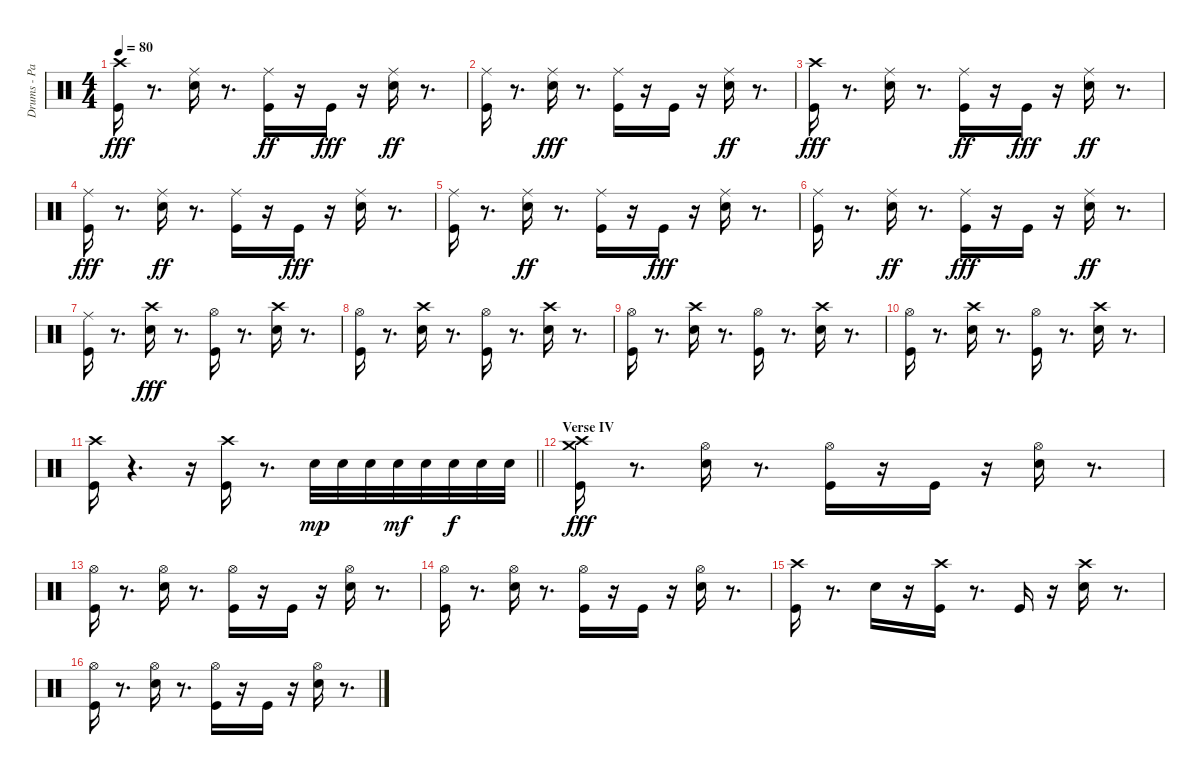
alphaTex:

\track ("Drums - Paice" "Drums - Pa") {instrument percussion}
\staff {score}
\articulation defaults
\ts (4 4)
\tempo 80
\clef neutral
\ks c
("Crash high (hit)" "Kick (hit)").16{dy fff} r.8{d} ("Ride (middle)" "Snare (hit) 2").16 r.8{d} ("Kick (hit)" "Ride (middle)").16{dy ff} r.16 "Kick (hit)".16{dy fff} r.16 ("Snare (hit) 2" "Ride (middle)").16{dy ff} r.8{d} |
("Kick (hit)" "Ride (middle)").16 r.8{d} ("Ride (middle)" "Snare (hit) 2").16{dy fff} r.8{d} ("Ride (middle)" "Kick (hit)").16 r.16 "Kick (hit)".16 r.16 ("Snare (hit) 2" "Ride (middle)").16{dy ff} r.8{d} |
("Crash high (hit)" "Kick (hit)").16{dy fff} r.8{d} ("Ride (middle)" "Snare (hit) 2").16 r.8{d} ("Kick (hit)" "Ride (middle)").16{dy ff} r.16 "Kick (hit)".16{dy fff} r.16 ("Snare (hit) 2" "Ride (middle)").16{dy ff} r.8{d} |
("Ride (middle)" "Kick (hit)").16{dy fff} r.8{d} ("Snare (hit) 2" "Ride (middle)").16{dy ff} r.8{d} ("Kick (hit)" "Ride (middle)").16 r.16 "Kick (hit)".16{dy fff} r.16 ("Ride (middle)" "Snare (hit) 2").16 r.8{d} |
("Ride (middle)" "Kick (hit)").16 r.8{d} ("Snare (hit) 2" "Ride (middle)").16{dy ff} r.8{d} ("Kick (hit)" "Ride (middle)").16 r.16 "Kick (hit)".16{dy fff} r.16 ("Ride (middle)" "Snare (hit) 2").16 r.8{d} |
("Ride (middle)" "Kick (hit)").16 r.8{d} ("Snare (hit) 2" "Ride (middle)").16{dy ff} r.8{d} ("Ride (middle)" "Kick (hit)").16{dy fff} r.16 "Kick (hit)".16 r.16 ("Snare (hit) 2" "Ride (middle)").16{dy ff} r.8{d} |
("Kick (hit)" "Ride (middle)").16 r.8{d} ("Crash high (hit)" "Snare (hit) 2").16{dy fff} r.8{d} ("Hi-Hat (open)" "Kick (hit)").16 r.8{d} ("Crash high (hit)" "Snare (hit) 2").16 r.8{d} |
("Hi-Hat (open)" "Kick (hit)").16 r.8{d} ("Crash high (hit)" "Snare (hit) 2").16 r.8{d} ("Kick (hit)" "Hi-Hat (open)").16 r.8{d} ("Crash high (hit)" "Snare (hit) 2").16 r.8{d} |
("Kick (hit)" "Hi-Hat (open)").16 r.8{d} ("Snare (hit) 2" "Crash high (hit)").16 r.8{d} ("Kick (hit)" "Hi-Hat (open)").16 r.8{d} ("Crash high (hit)" "Snare (hit) 2").16 r.8{d} |
("Kick (hit)" "Hi-Hat (open)").16 r.8{d} ("Snare (hit) 2" "Crash high (hit)").16 r.8{d} ("Kick (hit)" "Hi-Hat (open)").16 r.8{d} ("Crash high (hit)" "Snare (hit) 2").16 r.8{d} |
\barLineRight lightlight
("Crash high (hit)" "Kick (hit)").16 r.4{d} r.16 ("Crash high (hit)" "Kick (hit)").16 r.8{d} "Snare (hit) 2".32{dy mp} "Snare (hit) 2".32 "Snare (hit) 2".32 "Snare (hit) 2".32{dy mf} "Snare (hit) 2".32 "Snare (hit) 2".32{dy f} "Snare (hit) 2".32 "Snare (hit) 2".32 |
\section ("" "Verse IV")
("Crash high (hit)" "Kick (hit)" "Crash medium (hit)").16{dy fff} r.8{d} ("Hi-Hat (open)" "Snare (hit) 2").16 r.8{d} ("Kick (hit)" "Hi-Hat (open)").16 r.16 "Kick (hit)".16 r.16 ("Snare (hit) 2" "Hi-Hat (open)").16 r.8{d} |
("Kick (hit)" "Hi-Hat (open)").16 r.8{d} ("Snare (hit) 2" "Hi-Hat (open)").16 r.8{d} ("Hi-Hat (open)" "Kick (hit)").16 r.16 "Kick (hit)".16 r.16 ("Snare (hit) 2" "Hi-Hat (open)").16 r.8{d} |
("Hi-Hat (open)" "Kick (hit)").16 r.8{d} ("Hi-Hat (open)" "Snare (hit) 2").16 r.8{d} ("Hi-Hat (open)" "Kick (hit)").16 r.16 "Kick (hit)".16 r.16 ("Snare (hit) 2" "Hi-Hat (open)").16 r.8{d} |
("Crash high (hit)" "Kick (hit)").16 r.8{d} "Snare (hit) 2".16 r.16 ("Crash high (hit)" "Kick (hit)").16 r.8{d} "Kick (hit)".16 r.16 ("Snare (hit) 2" "Crash high (hit)").16 r.8{d} |
("Hi-Hat (open)" "Kick (hit)").16 r.8{d} ("Hi-Hat (open)" "Snare (hit) 2").16 r.8{d} ("Hi-Hat (open)" "Kick (hit)").16 r.16 "Kick (hit)".16 r.16 ("Snare (hit) 2" "Hi-Hat (open)").16 r.8{d}
